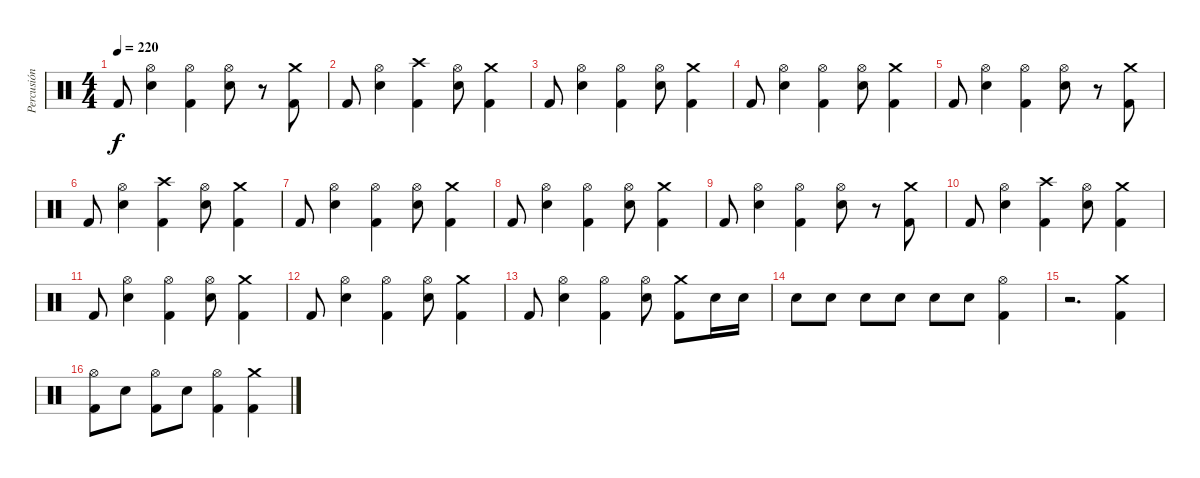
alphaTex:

\track ("Percusión" "Percusión") {instrument percussion}
\staff {score}
\articulation defaults
\ts (4 4)
\tempo 220
\clef neutral
\ks c "Kick (hit) 2".8{dy f}
("Hi-Hat (open)" "Snare (hit) 2").4 ("Hi-Hat (open)" "Kick (hit) 2").4 ("Hi-Hat (open)" "Snare (hit) 2").8 r.8 ("Crash medium (hit)" "Kick (hit) 2").8 |
"Kick (hit) 2".8 ("Hi-Hat (open)" "Snare (hit) 2").4 ("Crash high (hit)" "Kick (hit) 2").4 ("Hi-Hat (open)" "Snare (hit) 2").8 ("Crash medium (hit)" "Kick (hit) 2").4 |
"Kick (hit) 2".8 ("Hi-Hat (open)" "Snare (hit) 2").4 ("Hi-Hat (open)" "Kick (hit) 2").4 ("Hi-Hat (open)" "Snare (hit) 2").8 ("Crash medium (hit)" "Kick (hit) 2").4 |
"Kick (hit) 2".8 ("Hi-Hat (open)" "Snare (hit) 2").4 ("Hi-Hat (open)" "Kick (hit) 2").4 ("Hi-Hat (open)" "Snare (hit) 2").8 ("Crash medium (hit)" "Kick (hit) 2").4 |
"Kick (hit) 2".8 ("Hi-Hat (open)" "Snare (hit) 2").4 ("Hi-Hat (open)" "Kick (hit) 2").4 ("Hi-Hat (open)" "Snare (hit) 2").8 r.8 ("Crash medium (hit)" "Kick (hit) 2").8 |
"Kick (hit) 2".8 ("Hi-Hat (open)" "Snare (hit) 2").4 ("Crash high (hit)" "Kick (hit) 2").4 ("Hi-Hat (open)" "Snare (hit) 2").8 ("Crash medium (hit)" "Kick (hit) 2").4 |
"Kick (hit) 2".8 ("Hi-Hat (open)" "Snare (hit) 2").4 ("Hi-Hat (open)" "Kick (hit) 2").4 ("Hi-Hat (open)" "Snare (hit) 2").8 ("Crash medium (hit)" "Kick (hit) 2").4 |
"Kick (hit) 2".8 ("Hi-Hat (open)" "Snare (hit) 2").4 ("Hi-Hat (open)" "Kick (hit) 2").4 ("Hi-Hat (open)" "Snare (hit) 2").8 ("Crash medium (hit)" "Kick (hit) 2").4 |
"Kick (hit) 2".8 ("Hi-Hat (open)" "Snare (hit) 2").4 ("Hi-Hat (open)" "Kick (hit) 2").4 ("Hi-Hat (open)" "Snare (hit) 2").8 r.8 ("Crash medium (hit)" "Kick (hit) 2").8 |
"Kick (hit) 2".8 ("Hi-Hat (open)" "Snare (hit) 2").4 ("Crash high (hit)" "Kick (hit) 2").4 ("Hi-Hat (open)" "Snare (hit) 2").8 ("Crash medium (hit)" "Kick (hit) 2").4 |
"Kick (hit) 2".8 ("Hi-Hat (open)" "Snare (hit) 2").4 ("Hi-Hat (open)" "Kick (hit) 2").4 ("Hi-Hat (open)" "Snare (hit) 2").8 ("Crash medium (hit)" "Kick (hit) 2").4 |
"Kick (hit) 2".8 ("Hi-Hat (open)" "Snare (hit) 2").4 ("Hi-Hat (open)" "Kick (hit) 2").4 ("Hi-Hat (open)" "Snare (hit) 2").8 ("Crash medium (hit)" "Kick (hit) 2").4 |
"Kick (hit) 2".8 ("Hi-Hat (open)" "Snare (hit) 2").4 ("Hi-Hat (open)" "Kick (hit) 2").4 ("Hi-Hat (open)" "Snare (hit) 2").8 ("Crash medium (hit)" "Kick (hit) 2").8 "Snare (hit) 2".16 "Snare (hit) 2".16 |
"Snare (hit) 2".8 "Snare (hit) 2".8 "Snare (hit) 2".8 "Snare (hit) 2".8 "Snare (hit) 2".8 "Snare (hit) 2".8 ("Hi-Hat (open)" "Kick (hit) 2").4 |
r.2{d} ("Crash medium (hit)" "Kick (hit) 2").4 |
("Hi-Hat (open)" "Kick (hit) 2").8 "Snare (hit) 2".8 ("Hi-Hat (open)" "Kick (hit) 2").8 "Snare (hit) 2".8 ("Hi-Hat (open)" "Kick (hit) 2").4 ("Crash medium (hit)" "Kick (hit) 2").4
